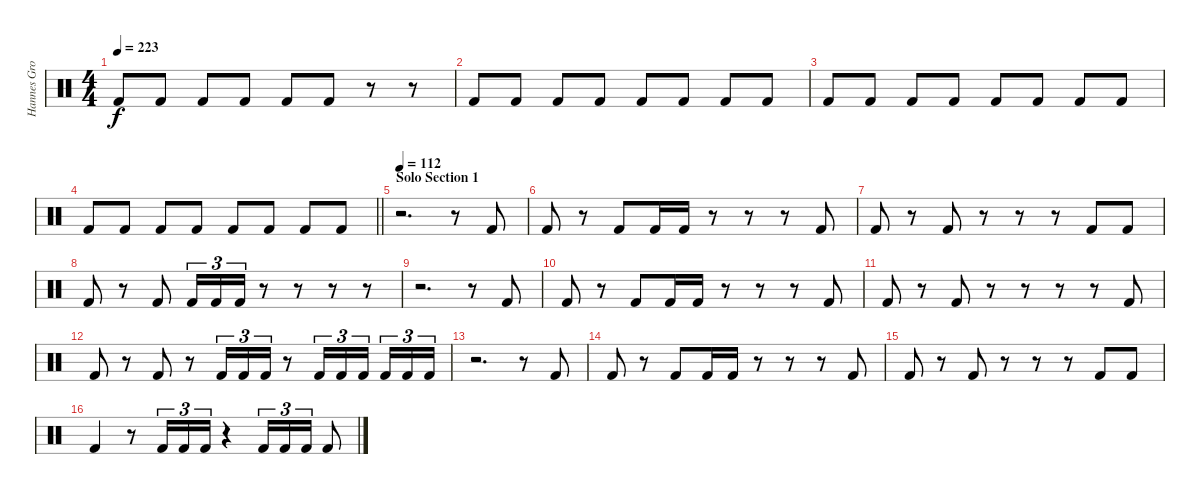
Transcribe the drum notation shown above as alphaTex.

\track ("Hannes Grossmann" "Hannes Gro") {instrument percussion}
\staff {score}
\articulation defaults
\ts (4 4)
\tempo 223
\clef neutral
\ks c "Kick (hit) 2".8{dy f} "Kick (hit) 2".8 "Kick (hit) 2".8 "Kick (hit) 2".8 "Kick (hit) 2".8 "Kick (hit) 2".8
r.8 r.8 |
"Kick (hit) 2".8 "Kick (hit) 2".8 "Kick (hit) 2".8 "Kick (hit) 2".8 "Kick (hit) 2".8 "Kick (hit) 2".8 "Kick (hit) 2".8 "Kick (hit) 2".8 |
"Kick (hit) 2".8 "Kick (hit) 2".8 "Kick (hit) 2".8 "Kick (hit) 2".8 "Kick (hit) 2".8 "Kick (hit) 2".8 "Kick (hit) 2".8 "Kick (hit) 2".8 |
\barLineRight lightlight "Kick (hit) 2".8 "Kick (hit) 2".8 "Kick (hit) 2".8 "Kick (hit) 2".8 "Kick (hit) 2".8 "Kick (hit) 2".8 "Kick (hit) 2".8 "Kick (hit) 2".8
|
\section ("" "Solo Section 1")
\tempo 112
r.2{d} r.8 "Kick (hit) 2".8 |
"Kick (hit) 2".8 r.8 "Kick (hit) 2".8 "Kick (hit) 2".16 "Kick (hit) 2".16 r.8 r.8 r.8 "Kick (hit) 2".8 |
"Kick (hit) 2".8 r.8 "Kick (hit) 2".8 r.8 r.8 r.8 "Kick (hit) 2".8 "Kick (hit) 2".8 |
"Kick (hit) 2".8 r.8 "Kick (hit) 2".8 "Kick (hit) 2".16{tu (3 2)} "Kick (hit) 2".16{tu (3 2)} "Kick (hit) 2".16{tu (3 2)} r.8 r.8 r.8 r.8 |
r.2{d} r.8 "Kick (hit) 2".8 |
"Kick (hit) 2".8 r.8 "Kick (hit) 2".8 "Kick (hit) 2".16 "Kick (hit) 2".16 r.8 r.8 r.8 "Kick (hit) 2".8 |
"Kick (hit) 2".8 r.8 "Kick (hit) 2".8 r.8 r.8 r.8 r.8 "Kick (hit) 2".8 |
"Kick (hit) 2".8 r.8 "Kick (hit) 2".8 r.8 "Kick (hit) 2".16{tu (3 2)} "Kick (hit) 2".16{tu (3 2)} "Kick (hit) 2".16{tu (3 2)} r.8 "Kick (hit) 2".16{tu (3 2)} "Kick (hit) 2".16{tu (3 2)} "Kick (hit) 2".16{tu (3 2) beam splitsecondary} "Kick (hit) 2".16{tu (3 2)} "Kick (hit) 2".16{tu (3 2)} "Kick (hit) 2".16{tu (3 2)} |
r.2{d} r.8 "Kick (hit) 2".8 |
"Kick (hit) 2".8 r.8 "Kick (hit) 2".8 "Kick (hit) 2".16 "Kick (hit) 2".16 r.8 r.8 r.8 "Kick (hit) 2".8 |
"Kick (hit) 2".8 r.8 "Kick (hit) 2".8 r.8 r.8 r.8 "Kick (hit) 2".8 "Kick (hit) 2".8 |
"Kick (hit) 2".4 r.8 "Kick (hit) 2".16{tu (3 2)} "Kick (hit) 2".16{tu (3 2)} "Kick (hit) 2".16{tu (3 2)} r.4 "Kick (hit) 2".16{tu (3 2)} "Kick (hit) 2".16{tu (3 2)} "Kick (hit) 2".16{tu (3 2)} "Kick (hit) 2".8
